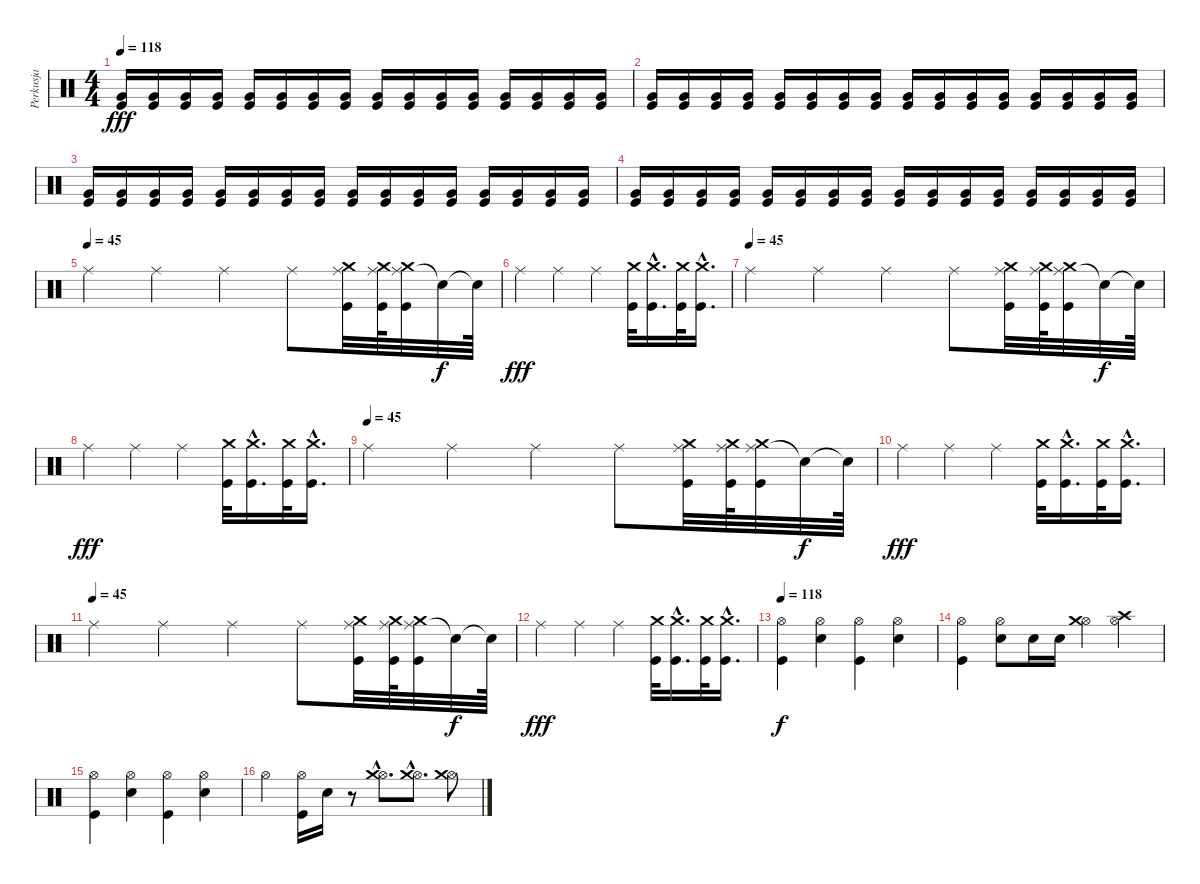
\track ("Perkusja" "Perkusja") {instrument percussion}
\staff {score}
\articulation defaults
\ts (4 4)
\tempo 118
\clef neutral
\ks c
("Very Low Tom (hit)" "Kick (hit)").16{dy fff} ("Very Low Tom (hit)" "Kick (hit)").16 ("Very Low Tom (hit)" "Kick (hit)").16 ("Very Low Tom (hit)" "Kick (hit)").16 ("Very Low Tom (hit)" "Kick (hit)").16 ("Very Low Tom (hit)" "Kick (hit)").16 ("Very Low Tom (hit)" "Kick (hit)").16 ("Very Low Tom (hit)" "Kick (hit)").16 ("Very Low Tom (hit)" "Kick (hit)").16 ("Very Low Tom (hit)" "Kick (hit)").16 ("Very Low Tom (hit)" "Kick (hit)").16 ("Very Low Tom (hit)" "Kick (hit)").16 ("Very Low Tom (hit)" "Kick (hit)").16 ("Very Low Tom (hit)" "Kick (hit)").16 ("Very Low Tom (hit)" "Kick (hit)").16 ("Very Low Tom (hit)" "Kick (hit)").16 |
("Very Low Tom (hit)" "Kick (hit)").16 ("Very Low Tom (hit)" "Kick (hit)").16 ("Very Low Tom (hit)" "Kick (hit)").16 ("Very Low Tom (hit)" "Kick (hit)").16 ("Very Low Tom (hit)" "Kick (hit)").16 ("Very Low Tom (hit)" "Kick (hit)").16 ("Very Low Tom (hit)" "Kick (hit)").16 ("Very Low Tom (hit)" "Kick (hit)").16 ("Very Low Tom (hit)" "Kick (hit)").16 ("Very Low Tom (hit)" "Kick (hit)").16 ("Very Low Tom (hit)" "Kick (hit)").16 ("Very Low Tom (hit)" "Kick (hit)").16 ("Very Low Tom (hit)" "Kick (hit)").16 ("Very Low Tom (hit)" "Kick (hit)").16 ("Very Low Tom (hit)" "Kick (hit)").16 ("Very Low Tom (hit)" "Kick (hit)").16 |
("Very Low Tom (hit)" "Kick (hit)").16 ("Very Low Tom (hit)" "Kick (hit)").16 ("Very Low Tom (hit)" "Kick (hit)").16 ("Very Low Tom (hit)" "Kick (hit)").16 ("Very Low Tom (hit)" "Kick (hit)").16 ("Very Low Tom (hit)" "Kick (hit)").16 ("Very Low Tom (hit)" "Kick (hit)").16 ("Very Low Tom (hit)" "Kick (hit)").16 ("Very Low Tom (hit)" "Kick (hit)").16 ("Very Low Tom (hit)" "Kick (hit)").16 ("Very Low Tom (hit)" "Kick (hit)").16 ("Very Low Tom (hit)" "Kick (hit)").16 ("Very Low Tom (hit)" "Kick (hit)").16 ("Very Low Tom (hit)" "Kick (hit)").16 ("Very Low Tom (hit)" "Kick (hit)").16 ("Very Low Tom (hit)" "Kick (hit)").16 |
("Very Low Tom (hit)" "Kick (hit)").16 ("Very Low Tom (hit)" "Kick (hit)").16 ("Very Low Tom (hit)" "Kick (hit)").16 ("Very Low Tom (hit)" "Kick (hit)").16 ("Very Low Tom (hit)" "Kick (hit)").16 ("Very Low Tom (hit)" "Kick (hit)").16 ("Very Low Tom (hit)" "Kick (hit)").16 ("Very Low Tom (hit)" "Kick (hit)").16 ("Very Low Tom (hit)" "Kick (hit)").16 ("Very Low Tom (hit)" "Kick (hit)").16 ("Very Low Tom (hit)" "Kick (hit)").16 ("Very Low Tom (hit)" "Kick (hit)").16 ("Very Low Tom (hit)" "Kick (hit)").16 ("Very Low Tom (hit)" "Kick (hit)").16 ("Very Low Tom (hit)" "Kick (hit)").16 ("Very Low Tom (hit)" "Kick (hit)").16 |
\tempo (45)
"Ride (middle)".4 "Ride (middle)".4 "Ride (middle)".4 "Ride (middle)".8 ("Ride (middle)" "Crash medium (hit)" "Kick (hit)").32 ("Ride (middle)" "Crash medium (hit)" "Kick (hit)").64 ("Ride (middle)" "Crash medium (hit)" "Kick (hit)").32 "Snare (hit)"{t}.32{dy f} "Snare (hit)"{t}.64 |
"Ride (middle)".4{dy fff} "Ride (middle)".4 "Ride (middle)".4 ("Crash medium (hit)" "Kick (hit)").32 ("Crash medium (hit)"{hac} "Kick (hit)"{hac}).16{d} ("Crash medium (hit)" "Kick (hit)").32 ("Crash medium (hit)"{hac} "Kick (hit)"{hac}).16{d} |
\tempo (45)
"Ride (middle)".4 "Ride (middle)".4 "Ride (middle)".4 "Ride (middle)".8 ("Ride (middle)" "Crash medium (hit)" "Kick (hit)").32 ("Ride (middle)" "Crash medium (hit)" "Kick (hit)").64 ("Ride (middle)" "Crash medium (hit)" "Kick (hit)").32 "Snare (hit)"{t}.32{dy f} "Snare (hit)"{t}.64 |
"Ride (middle)".4{dy fff} "Ride (middle)".4 "Ride (middle)".4 ("Crash medium (hit)" "Kick (hit)").32 ("Crash medium (hit)"{hac} "Kick (hit)"{hac}).16{d} ("Crash medium (hit)" "Kick (hit)").32 ("Crash medium (hit)"{hac} "Kick (hit)"{hac}).16{d} |
\tempo (45)
"Ride (middle)".4 "Ride (middle)".4 "Ride (middle)".4 "Ride (middle)".8 ("Ride (middle)" "Crash medium (hit)" "Kick (hit)").32 ("Ride (middle)" "Crash medium (hit)" "Kick (hit)").64 ("Ride (middle)" "Crash medium (hit)" "Kick (hit)").32 "Snare (hit)"{t}.32{dy f} "Snare (hit)"{t}.64 |
"Ride (middle)".4{dy fff} "Ride (middle)".4 "Ride (middle)".4 ("Crash medium (hit)" "Kick (hit)").32 ("Crash medium (hit)"{hac} "Kick (hit)"{hac}).16{d} ("Crash medium (hit)" "Kick (hit)").32 ("Crash medium (hit)"{hac} "Kick (hit)"{hac}).16{d} |
\tempo (45)
"Ride (middle)".4 "Ride (middle)".4 "Ride (middle)".4 "Ride (middle)".8 ("Ride (middle)" "Crash medium (hit)" "Kick (hit)").32 ("Ride (middle)" "Crash medium (hit)" "Kick (hit)").64 ("Ride (middle)" "Crash medium (hit)" "Kick (hit)").32 "Snare (hit)"{t}.32{dy f} "Snare (hit)"{t}.64 |
"Ride (middle)".4{dy fff} "Ride (middle)".4 "Ride (middle)".4 ("Crash medium (hit)" "Kick (hit)").32 ("Crash medium (hit)"{hac} "Kick (hit)"{hac}).16{d} ("Crash medium (hit)" "Kick (hit)").32 ("Crash medium (hit)"{hac} "Kick (hit)"{hac}).16{d} |
\tempo 118
("Hi-Hat (open)" "Kick (hit)").4{dy f} ("Hi-Hat (open)" "Electric Snare (hit)").4 ("Hi-Hat (open)" "Kick (hit)").4 ("Hi-Hat (open)" "Electric Snare (hit)").4 |
("Hi-Hat (open)" "Kick (hit)").4 ("Hi-Hat (open)" "Electric Snare (hit)").8 "Electric Snare (hit)".16 "Electric Snare (hit)".16 ("Hi-Hat (open)" "Crash medium (hit)").4 ("Hi-Hat (open)" "Crash high (hit)").4 |
("Hi-Hat (open)" "Kick (hit)").4 ("Hi-Hat (open)" "Electric Snare (hit)").4 ("Hi-Hat (open)" "Kick (hit)").4 ("Hi-Hat (open)" "Electric Snare (hit)").4 |
"Hi-Hat (open)".4 ("Hi-Hat (open)" "Kick (hit)").16 "Electric Snare (hit)".16 r.8 ("Hi-Hat (open)"{hac} "Crash medium (hit)"{hac}).8{d} ("Hi-Hat (open)"{hac} "Crash medium (hit)"{hac}).8{d} ("Hi-Hat (open)" "Crash medium (hit)").8
